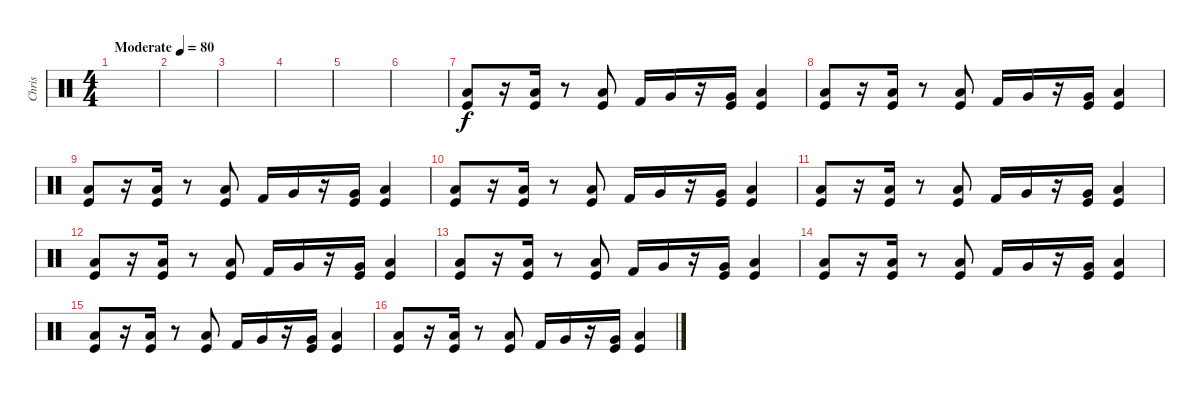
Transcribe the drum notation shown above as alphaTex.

\track ("Chris" "Chris") {instrument percussion}
\staff {score}
\articulation defaults
\ts (4 4)
\tempo (80 "Moderate")
\clef neutral
\ks c
|
|
|
|
|
|
("Kick (hit)" "Low Floor Tom (hit)").8 r.16 ("Kick (hit)" "Low Floor Tom (hit)").16 r.8 ("Kick (hit)" "Low Floor Tom (hit)").8 "Kick (hit) 2".16 "Very Low Tom (hit)".16 r.16 ("Kick (hit)" "Very Low Tom (hit)").16 ("Kick (hit)" "Low Floor Tom (hit)").4 |
("Kick (hit)" "Low Floor Tom (hit)").8 r.16 ("Kick (hit)" "Low Floor Tom (hit)").16 r.8 ("Kick (hit)" "Low Floor Tom (hit)").8 "Kick (hit) 2".16 "Very Low Tom (hit)".16 r.16 ("Kick (hit)" "Very Low Tom (hit)").16 ("Kick (hit)" "Low Floor Tom (hit)").4 |
("Kick (hit)" "Low Floor Tom (hit)").8 r.16 ("Kick (hit)" "Low Floor Tom (hit)").16 r.8 ("Kick (hit)" "Low Floor Tom (hit)").8 "Kick (hit) 2".16 "Very Low Tom (hit)".16 r.16 ("Kick (hit)" "Very Low Tom (hit)").16 ("Kick (hit)" "Low Floor Tom (hit)").4 |
("Kick (hit)" "Low Floor Tom (hit)").8 r.16 ("Kick (hit)" "Low Floor Tom (hit)").16 r.8 ("Kick (hit)" "Low Floor Tom (hit)").8 "Kick (hit) 2".16 "Very Low Tom (hit)".16 r.16 ("Kick (hit)" "Very Low Tom (hit)").16 ("Kick (hit)" "Low Floor Tom (hit)").4 |
("Kick (hit)" "Low Floor Tom (hit)").8 r.16 ("Kick (hit)" "Low Floor Tom (hit)").16 r.8 ("Kick (hit)" "Low Floor Tom (hit)").8 "Kick (hit) 2".16 "Very Low Tom (hit)".16 r.16 ("Kick (hit)" "Very Low Tom (hit)").16 ("Kick (hit)" "Low Floor Tom (hit)").4 |
("Kick (hit)" "Low Floor Tom (hit)").8 r.16 ("Kick (hit)" "Low Floor Tom (hit)").16 r.8 ("Kick (hit)" "Low Floor Tom (hit)").8 "Kick (hit) 2".16 "Very Low Tom (hit)".16 r.16 ("Kick (hit)" "Very Low Tom (hit)").16 ("Kick (hit)" "Low Floor Tom (hit)").4 |
("Kick (hit)" "Low Floor Tom (hit)").8 r.16 ("Kick (hit)" "Low Floor Tom (hit)").16 r.8 ("Kick (hit)" "Low Floor Tom (hit)").8 "Kick (hit) 2".16 "Very Low Tom (hit)".16 r.16 ("Kick (hit)" "Very Low Tom (hit)").16 ("Kick (hit)" "Low Floor Tom (hit)").4 |
("Kick (hit)" "Low Floor Tom (hit)").8 r.16 ("Kick (hit)" "Low Floor Tom (hit)").16 r.8 ("Kick (hit)" "Low Floor Tom (hit)").8 "Kick (hit) 2".16 "Very Low Tom (hit)".16 r.16 ("Kick (hit)" "Very Low Tom (hit)").16 ("Kick (hit)" "Low Floor Tom (hit)").4 |
("Kick (hit)" "Low Floor Tom (hit)").8 r.16 ("Kick (hit)" "Low Floor Tom (hit)").16 r.8 ("Kick (hit)" "Low Floor Tom (hit)").8 "Kick (hit) 2".16 "Very Low Tom (hit)".16 r.16 ("Kick (hit)" "Very Low Tom (hit)").16 ("Kick (hit)" "Low Floor Tom (hit)").4 |
("Kick (hit)" "Low Floor Tom (hit)").8 r.16 ("Kick (hit)" "Low Floor Tom (hit)").16 r.8 ("Kick (hit)" "Low Floor Tom (hit)").8 "Kick (hit) 2".16 "Very Low Tom (hit)".16 r.16 ("Kick (hit)" "Very Low Tom (hit)").16 ("Kick (hit)" "Low Floor Tom (hit)").4
